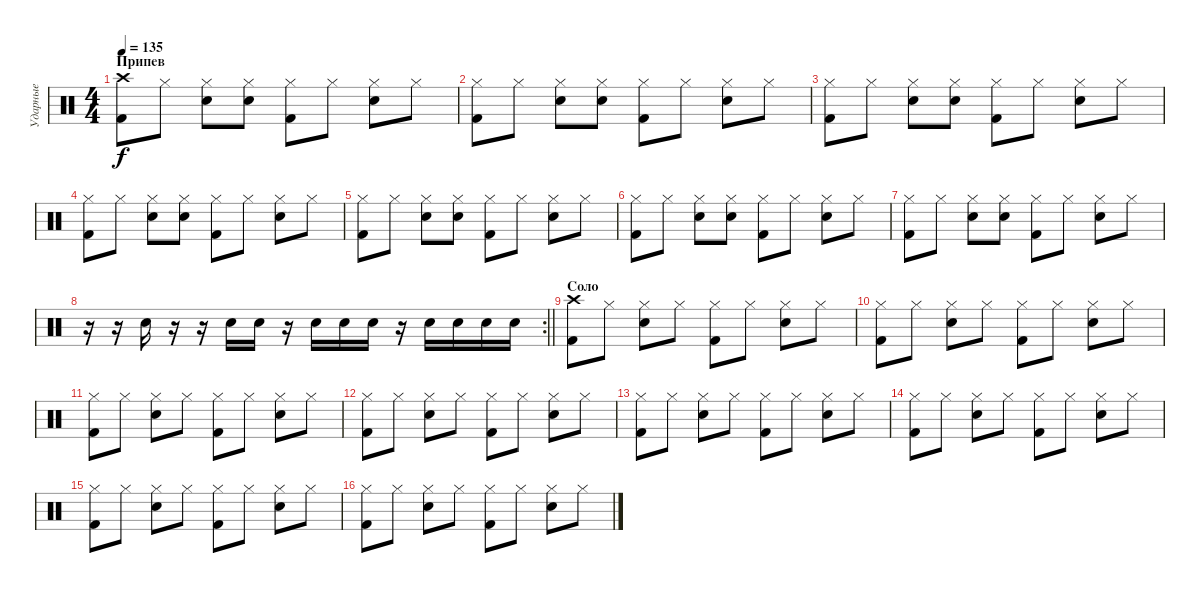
\track ("Ударные" "Ударные") {instrument percussion}
\staff {score}
\articulation defaults
\ts (4 4)
\section ("" "Припев")
\tempo 135
\clef neutral
\ks c
("Crash high (hit)" "Kick (hit) 2").8{dy f} "Hi-Hat (closed)".8 ("Hi-Hat (closed)" "Snare (hit) 2").8 ("Hi-Hat (closed)" "Snare (hit) 2").8 ("Hi-Hat (closed)" "Kick (hit) 2").8 "Hi-Hat (closed)".8 ("Hi-Hat (closed)" "Snare (hit) 2").8 "Hi-Hat (closed)".8 |
("Hi-Hat (closed)" "Kick (hit) 2").8 "Hi-Hat (closed)".8 ("Hi-Hat (closed)" "Snare (hit) 2").8 ("Hi-Hat (closed)" "Snare (hit) 2").8 ("Hi-Hat (closed)" "Kick (hit) 2").8 "Hi-Hat (closed)".8 ("Hi-Hat (closed)" "Snare (hit) 2").8 "Hi-Hat (closed)".8 |
("Hi-Hat (closed)" "Kick (hit) 2").8 "Hi-Hat (closed)".8 ("Hi-Hat (closed)" "Snare (hit) 2").8 ("Hi-Hat (closed)" "Snare (hit) 2").8 ("Hi-Hat (closed)" "Kick (hit) 2").8 "Hi-Hat (closed)".8 ("Hi-Hat (closed)" "Snare (hit) 2").8 "Hi-Hat (closed)".8 |
("Hi-Hat (closed)" "Kick (hit) 2").8 "Hi-Hat (closed)".8 ("Hi-Hat (closed)" "Snare (hit) 2").8 ("Hi-Hat (closed)" "Snare (hit) 2").8 ("Hi-Hat (closed)" "Kick (hit) 2").8 "Hi-Hat (closed)".8 ("Hi-Hat (closed)" "Snare (hit) 2").8 "Hi-Hat (closed)".8 |
("Hi-Hat (closed)" "Kick (hit) 2").8 "Hi-Hat (closed)".8 ("Hi-Hat (closed)" "Snare (hit) 2").8 ("Hi-Hat (closed)" "Snare (hit) 2").8 ("Hi-Hat (closed)" "Kick (hit) 2").8 "Hi-Hat (closed)".8 ("Hi-Hat (closed)" "Snare (hit) 2").8 "Hi-Hat (closed)".8 |
("Hi-Hat (closed)" "Kick (hit) 2").8 "Hi-Hat (closed)".8 ("Hi-Hat (closed)" "Snare (hit) 2").8 ("Hi-Hat (closed)" "Snare (hit) 2").8 ("Hi-Hat (closed)" "Kick (hit) 2").8 "Hi-Hat (closed)".8 ("Hi-Hat (closed)" "Snare (hit) 2").8 "Hi-Hat (closed)".8 |
("Hi-Hat (closed)" "Kick (hit) 2").8 "Hi-Hat (closed)".8 ("Hi-Hat (closed)" "Snare (hit) 2").8 ("Hi-Hat (closed)" "Snare (hit) 2").8 ("Hi-Hat (closed)" "Kick (hit) 2").8 "Hi-Hat (closed)".8 ("Hi-Hat (closed)" "Snare (hit) 2").8 "Hi-Hat (closed)".8 |
\rc 2
\barLineRight lightlight
r.16 r.16 "Snare (hit) 2".16 r.16 r.16 "Snare (hit) 2".16 "Snare (hit) 2".16 r.16 "Snare (hit) 2".16 "Snare (hit) 2".16 "Snare (hit) 2".16 r.16 "Snare (hit) 2".16 "Snare (hit) 2".16 "Snare (hit) 2".16 "Snare (hit) 2".16 |
\section ("" "Соло")
("Crash high (hit)" "Kick (hit) 2").8 "Hi-Hat (closed)".8 ("Hi-Hat (closed)" "Snare (hit) 2").8 "Hi-Hat (closed)".8 ("Hi-Hat (closed)" "Kick (hit) 2").8 "Hi-Hat (closed)".8 ("Hi-Hat (closed)" "Snare (hit) 2").8 "Hi-Hat (closed)".8 |
("Hi-Hat (closed)" "Kick (hit) 2").8 "Hi-Hat (closed)".8 ("Hi-Hat (closed)" "Snare (hit) 2").8 "Hi-Hat (closed)".8 ("Hi-Hat (closed)" "Kick (hit) 2").8 "Hi-Hat (closed)".8 ("Hi-Hat (closed)" "Snare (hit) 2").8 "Hi-Hat (closed)".8 |
("Hi-Hat (closed)" "Kick (hit) 2").8 "Hi-Hat (closed)".8 ("Hi-Hat (closed)" "Snare (hit) 2").8 "Hi-Hat (closed)".8 ("Hi-Hat (closed)" "Kick (hit) 2").8 "Hi-Hat (closed)".8 ("Hi-Hat (closed)" "Snare (hit) 2").8 "Hi-Hat (closed)".8 |
("Hi-Hat (closed)" "Kick (hit) 2").8 "Hi-Hat (closed)".8 ("Hi-Hat (closed)" "Snare (hit) 2").8 "Hi-Hat (closed)".8 ("Hi-Hat (closed)" "Kick (hit) 2").8 "Hi-Hat (closed)".8 ("Hi-Hat (closed)" "Snare (hit) 2").8 "Hi-Hat (closed)".8 |
("Hi-Hat (closed)" "Kick (hit) 2").8 "Hi-Hat (closed)".8 ("Hi-Hat (closed)" "Snare (hit) 2").8 "Hi-Hat (closed)".8 ("Hi-Hat (closed)" "Kick (hit) 2").8 "Hi-Hat (closed)".8 ("Hi-Hat (closed)" "Snare (hit) 2").8 "Hi-Hat (closed)".8 |
("Hi-Hat (closed)" "Kick (hit) 2").8 "Hi-Hat (closed)".8 ("Hi-Hat (closed)" "Snare (hit) 2").8 "Hi-Hat (closed)".8 ("Hi-Hat (closed)" "Kick (hit) 2").8 "Hi-Hat (closed)".8 ("Hi-Hat (closed)" "Snare (hit) 2").8 "Hi-Hat (closed)".8 |
("Hi-Hat (closed)" "Kick (hit) 2").8 "Hi-Hat (closed)".8 ("Hi-Hat (closed)" "Snare (hit) 2").8 "Hi-Hat (closed)".8 ("Hi-Hat (closed)" "Kick (hit) 2").8 "Hi-Hat (closed)".8 ("Hi-Hat (closed)" "Snare (hit) 2").8 "Hi-Hat (closed)".8 |
("Hi-Hat (closed)" "Kick (hit) 2").8 "Hi-Hat (closed)".8 ("Hi-Hat (closed)" "Snare (hit) 2").8 "Hi-Hat (closed)".8 ("Hi-Hat (closed)" "Kick (hit) 2").8 "Hi-Hat (closed)".8 ("Hi-Hat (closed)" "Snare (hit) 2").8 "Hi-Hat (closed)".8
